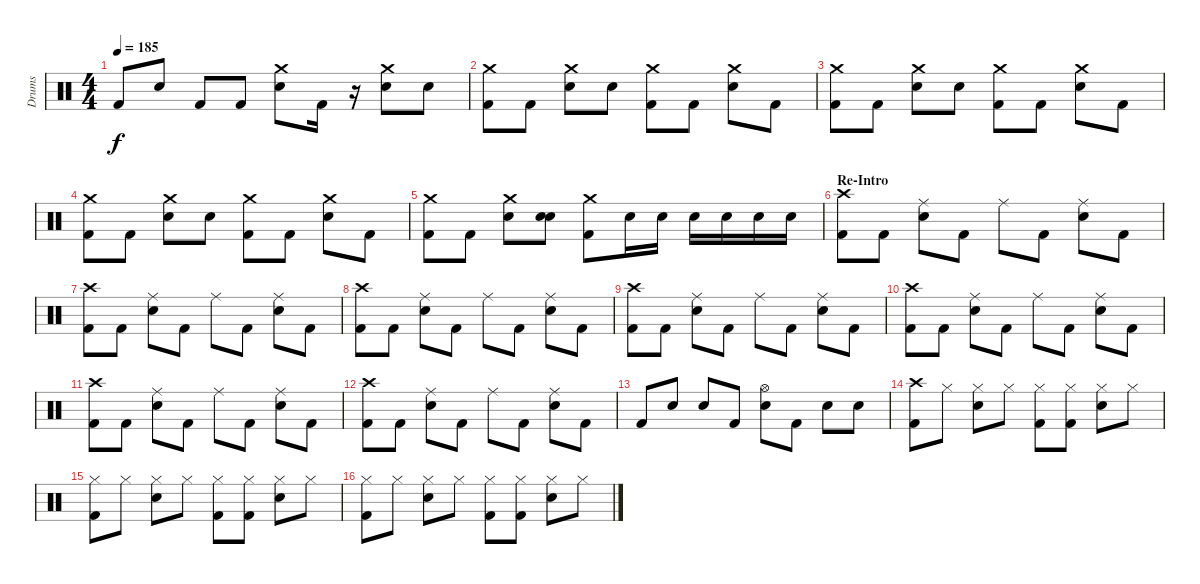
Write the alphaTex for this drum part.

\track ("Drums" "Drums") {instrument percussion}
\staff {score}
\articulation defaults
\ts (4 4)
\tempo 185
\clef neutral
\ks c "Kick (hit) 2".8{dy f} "Electric Snare (hit)".8 "Kick (hit) 2".8 "Kick (hit) 2".8
("Crash medium (hit)" "Electric Snare (hit)").8 "Kick (hit) 2".16 r.16 ("Crash medium (hit)" "Electric Snare (hit)").8 "Electric Snare (hit)".8 |
("Crash medium (hit)" "Kick (hit) 2").8 "Kick (hit) 2".8 ("Crash medium (hit)" "Electric Snare (hit)").8 "Electric Snare (hit)".8 ("Crash medium (hit)" "Kick (hit) 2").8 "Kick (hit) 2".8 ("Crash medium (hit)" "Electric Snare (hit)").8 "Kick (hit) 2".8 |
("Crash medium (hit)" "Kick (hit) 2").8 "Kick (hit) 2".8 ("Crash medium (hit)" "Electric Snare (hit)").8 "Electric Snare (hit)".8 ("Crash medium (hit)" "Kick (hit) 2").8 "Kick (hit) 2".8 ("Crash medium (hit)" "Electric Snare (hit)").8 "Kick (hit) 2".8 |
("Crash medium (hit)" "Kick (hit) 2").8 "Kick (hit) 2".8 ("Crash medium (hit)" "Electric Snare (hit)").8 "Electric Snare (hit)".8 ("Crash medium (hit)" "Kick (hit) 2").8 "Kick (hit) 2".8 ("Crash medium (hit)" "Electric Snare (hit)").8 "Kick (hit) 2".8 |
("Crash medium (hit)" "Kick (hit) 2").8 "Kick (hit) 2".8 ("Crash medium (hit)" "Electric Snare (hit)").8 ("Electric Snare (hit)" "Snare (hit)").8 ("Crash medium (hit)" "Kick (hit) 2").8 "Electric Snare (hit)".16 "Electric Snare (hit)".16 "Electric Snare (hit)".16 "Electric Snare (hit)".16 "Electric Snare (hit)".16 "Electric Snare (hit)".16 |
\section ("" "Re-Intro")
("Crash high (hit)" "Kick (hit) 2").8 "Kick (hit) 2".8 ("Ride (middle)" "Electric Snare (hit)").8 "Kick (hit) 2".8 "Ride (middle)".8 "Kick (hit) 2".8 ("Ride (middle)" "Electric Snare (hit)").8 "Kick (hit) 2".8 |
("Crash high (hit)" "Kick (hit) 2").8 "Kick (hit) 2".8 ("Ride (middle)" "Electric Snare (hit)").8 "Kick (hit) 2".8 "Ride (middle)".8 "Kick (hit) 2".8 ("Ride (middle)" "Electric Snare (hit)").8 "Kick (hit) 2".8 |
("Crash high (hit)" "Kick (hit) 2").8 "Kick (hit) 2".8 ("Ride (middle)" "Electric Snare (hit)").8 "Kick (hit) 2".8 "Ride (middle)".8 "Kick (hit) 2".8 ("Ride (middle)" "Electric Snare (hit)").8 "Kick (hit) 2".8 |
("Crash high (hit)" "Kick (hit) 2").8 "Kick (hit) 2".8 ("Ride (middle)" "Electric Snare (hit)").8 "Kick (hit) 2".8 "Ride (middle)".8 "Kick (hit) 2".8 ("Ride (middle)" "Electric Snare (hit)").8 "Kick (hit) 2".8 |
("Crash high (hit)" "Kick (hit) 2").8 "Kick (hit) 2".8 ("Ride (middle)" "Electric Snare (hit)").8 "Kick (hit) 2".8 "Ride (middle)".8 "Kick (hit) 2".8 ("Ride (middle)" "Electric Snare (hit)").8 "Kick (hit) 2".8 |
("Crash high (hit)" "Kick (hit) 2").8 "Kick (hit) 2".8 ("Ride (middle)" "Electric Snare (hit)").8 "Kick (hit) 2".8 "Ride (middle)".8 "Kick (hit) 2".8 ("Ride (middle)" "Electric Snare (hit)").8 "Kick (hit) 2".8 |
("Crash high (hit)" "Kick (hit) 2").8 "Kick (hit) 2".8 ("Ride (middle)" "Electric Snare (hit)").8 "Kick (hit) 2".8 "Ride (middle)".8 "Kick (hit) 2".8 ("Ride (middle)" "Electric Snare (hit)").8 "Kick (hit) 2".8 |
"Kick (hit) 2".8 "Electric Snare (hit)".8 "Electric Snare (hit)".8 "Kick (hit) 2".8 ("Hi-Hat (open)" "Electric Snare (hit)").8 "Kick (hit) 2".8 "Electric Snare (hit)".8 "Electric Snare (hit)".8 |
("Crash high (hit)" "Kick (hit) 2").8 "Hi-Hat (closed)".8 ("Hi-Hat (closed)" "Electric Snare (hit)").8 "Hi-Hat (closed)".8 ("Hi-Hat (closed)" "Kick (hit) 2").8 ("Hi-Hat (closed)" "Kick (hit) 2").8 ("Hi-Hat (closed)" "Electric Snare (hit)").8 "Hi-Hat (closed)".8 |
("Hi-Hat (closed)" "Kick (hit) 2").8 "Hi-Hat (closed)".8 ("Hi-Hat (closed)" "Electric Snare (hit)").8 "Hi-Hat (closed)".8 ("Hi-Hat (closed)" "Kick (hit) 2").8 ("Hi-Hat (closed)" "Kick (hit) 2").8 ("Hi-Hat (closed)" "Electric Snare (hit)").8 "Hi-Hat (closed)".8 |
("Hi-Hat (closed)" "Kick (hit) 2").8 "Hi-Hat (closed)".8 ("Hi-Hat (closed)" "Electric Snare (hit)").8 "Hi-Hat (closed)".8 ("Hi-Hat (closed)" "Kick (hit) 2").8 ("Hi-Hat (closed)" "Kick (hit) 2").8 ("Hi-Hat (closed)" "Electric Snare (hit)").8 "Hi-Hat (closed)".8
